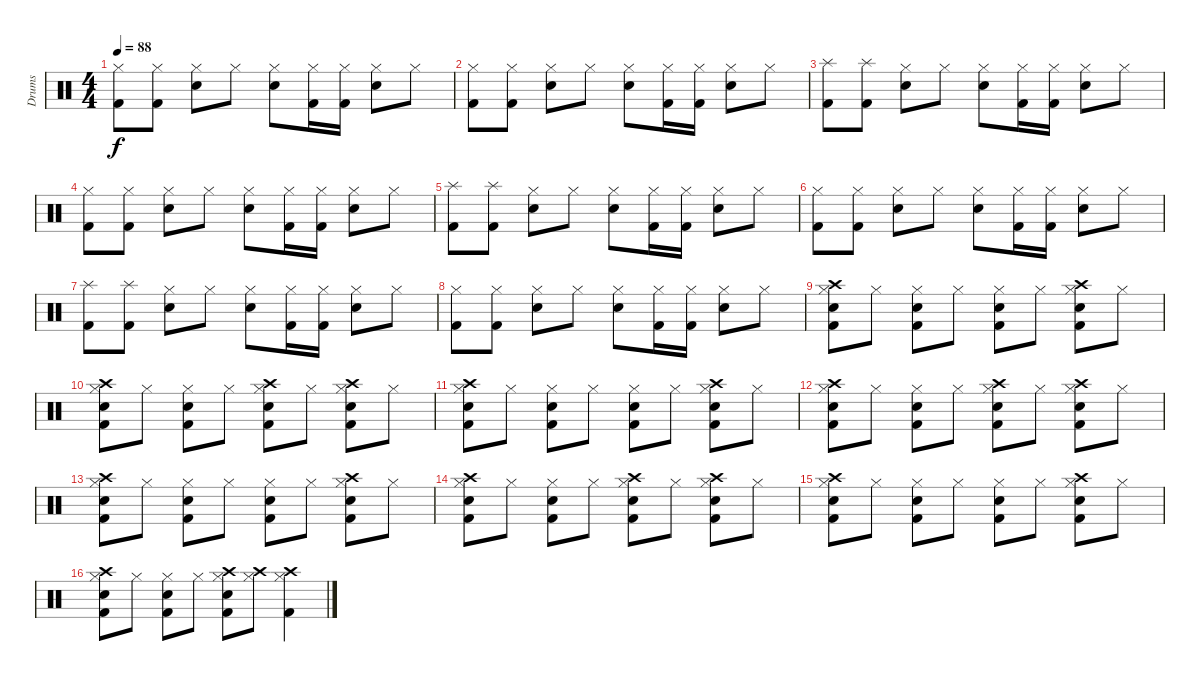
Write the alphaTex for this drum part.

\track ("Drums" "Drums") {instrument percussion}
\staff {score}
\articulation defaults
\ts (4 4)
\tempo 88
\clef neutral
\ks c
("Hi-Hat (closed)" "Kick (hit) 2").8{dy f} ("Hi-Hat (closed)" "Kick (hit) 2").8 ("Hi-Hat (closed)" "Electric Snare (hit)").8 "Hi-Hat (closed)".8 ("Hi-Hat (closed)" "Electric Snare (hit)").8 ("Hi-Hat (closed)" "Kick (hit) 2").16 ("Hi-Hat (closed)" "Kick (hit) 2").16 ("Hi-Hat (closed)" "Electric Snare (hit)").8 "Hi-Hat (closed)".8 |
("Hi-Hat (closed)" "Kick (hit) 2").8 ("Hi-Hat (closed)" "Kick (hit) 2").8 ("Hi-Hat (closed)" "Electric Snare (hit)").8 "Hi-Hat (closed)".8 ("Hi-Hat (closed)" "Electric Snare (hit)").8 ("Hi-Hat (closed)" "Kick (hit) 2").16 ("Hi-Hat (closed)" "Kick (hit) 2").16 ("Hi-Hat (closed)" "Electric Snare (hit)").8 "Hi-Hat (closed)".8 |
("Splash (hit)" "Kick (hit) 2").8 ("Splash (hit)" "Kick (hit) 2").8 ("Hi-Hat (closed)" "Electric Snare (hit)").8 "Hi-Hat (closed)".8 ("Hi-Hat (closed)" "Electric Snare (hit)").8 ("Hi-Hat (closed)" "Kick (hit) 2").16 ("Hi-Hat (closed)" "Kick (hit) 2").16 ("Hi-Hat (closed)" "Electric Snare (hit)").8 "Hi-Hat (closed)".8 |
("Hi-Hat (closed)" "Kick (hit) 2").8 ("Hi-Hat (closed)" "Kick (hit) 2").8 ("Hi-Hat (closed)" "Electric Snare (hit)").8 "Hi-Hat (closed)".8 ("Hi-Hat (closed)" "Electric Snare (hit)").8 ("Hi-Hat (closed)" "Kick (hit) 2").16 ("Hi-Hat (closed)" "Kick (hit) 2").16 ("Hi-Hat (closed)" "Electric Snare (hit)").8 "Hi-Hat (closed)".8 |
("Splash (hit)" "Kick (hit) 2").8 ("Splash (hit)" "Kick (hit) 2").8 ("Hi-Hat (closed)" "Electric Snare (hit)").8 "Hi-Hat (closed)".8 ("Hi-Hat (closed)" "Electric Snare (hit)").8 ("Hi-Hat (closed)" "Kick (hit) 2").16 ("Hi-Hat (closed)" "Kick (hit) 2").16 ("Hi-Hat (closed)" "Electric Snare (hit)").8 "Hi-Hat (closed)".8 |
("Hi-Hat (closed)" "Kick (hit) 2").8 ("Hi-Hat (closed)" "Kick (hit) 2").8 ("Hi-Hat (closed)" "Electric Snare (hit)").8 "Hi-Hat (closed)".8 ("Hi-Hat (closed)" "Electric Snare (hit)").8 ("Hi-Hat (closed)" "Kick (hit) 2").16 ("Hi-Hat (closed)" "Kick (hit) 2").16 ("Hi-Hat (closed)" "Electric Snare (hit)").8 "Hi-Hat (closed)".8 |
("Splash (hit)" "Kick (hit) 2").8 ("Splash (hit)" "Kick (hit) 2").8 ("Hi-Hat (closed)" "Electric Snare (hit)").8 "Hi-Hat (closed)".8 ("Hi-Hat (closed)" "Electric Snare (hit)").8 ("Hi-Hat (closed)" "Kick (hit) 2").16 ("Hi-Hat (closed)" "Kick (hit) 2").16 ("Hi-Hat (closed)" "Electric Snare (hit)").8 "Hi-Hat (closed)".8 |
("Hi-Hat (closed)" "Kick (hit) 2").8 ("Hi-Hat (closed)" "Kick (hit) 2").8 ("Hi-Hat (closed)" "Electric Snare (hit)").8 "Hi-Hat (closed)".8 ("Hi-Hat (closed)" "Electric Snare (hit)").8 ("Hi-Hat (closed)" "Kick (hit) 2").16 ("Hi-Hat (closed)" "Kick (hit) 2").16 ("Hi-Hat (closed)" "Electric Snare (hit)").8 "Hi-Hat (closed)".8 |
("Crash high (hit)" "Hi-Hat (closed)" "Electric Snare (hit)" "Kick (hit) 2").8 "Hi-Hat (closed)".8 ("Hi-Hat (closed)" "Electric Snare (hit)" "Kick (hit) 2").8 "Hi-Hat (closed)".8 ("Hi-Hat (closed)" "Electric Snare (hit)" "Kick (hit) 2").8 "Hi-Hat (closed)".8 ("Crash high (hit)" "Hi-Hat (closed)" "Electric Snare (hit)" "Kick (hit) 2").8 "Hi-Hat (closed)".8 |
("Crash high (hit)" "Hi-Hat (closed)" "Electric Snare (hit)" "Kick (hit) 2").8 "Hi-Hat (closed)".8 ("Hi-Hat (closed)" "Electric Snare (hit)" "Kick (hit) 2").8 "Hi-Hat (closed)".8 ("Crash high (hit)" "Hi-Hat (closed)" "Electric Snare (hit)" "Kick (hit) 2").8 "Hi-Hat (closed)".8 ("Crash high (hit)" "Hi-Hat (closed)" "Electric Snare (hit)" "Kick (hit) 2").8 "Hi-Hat (closed)".8 |
("Crash high (hit)" "Hi-Hat (closed)" "Electric Snare (hit)" "Kick (hit) 2").8 "Hi-Hat (closed)".8 ("Hi-Hat (closed)" "Electric Snare (hit)" "Kick (hit) 2").8 "Hi-Hat (closed)".8 ("Hi-Hat (closed)" "Electric Snare (hit)" "Kick (hit) 2").8 "Hi-Hat (closed)".8 ("Crash high (hit)" "Hi-Hat (closed)" "Electric Snare (hit)" "Kick (hit) 2").8 "Hi-Hat (closed)".8 |
("Crash high (hit)" "Hi-Hat (closed)" "Electric Snare (hit)" "Kick (hit) 2").8 "Hi-Hat (closed)".8 ("Hi-Hat (closed)" "Electric Snare (hit)" "Kick (hit) 2").8 "Hi-Hat (closed)".8 ("Crash high (hit)" "Hi-Hat (closed)" "Electric Snare (hit)" "Kick (hit) 2").8 "Hi-Hat (closed)".8 ("Crash high (hit)" "Hi-Hat (closed)" "Electric Snare (hit)" "Kick (hit) 2").8 "Hi-Hat (closed)".8 |
("Crash high (hit)" "Hi-Hat (closed)" "Electric Snare (hit)" "Kick (hit) 2").8 "Hi-Hat (closed)".8 ("Hi-Hat (closed)" "Electric Snare (hit)" "Kick (hit) 2").8 "Hi-Hat (closed)".8 ("Hi-Hat (closed)" "Electric Snare (hit)" "Kick (hit) 2").8 "Hi-Hat (closed)".8 ("Crash high (hit)" "Hi-Hat (closed)" "Electric Snare (hit)" "Kick (hit) 2").8 "Hi-Hat (closed)".8 |
("Crash high (hit)" "Hi-Hat (closed)" "Electric Snare (hit)" "Kick (hit) 2").8 "Hi-Hat (closed)".8 ("Hi-Hat (closed)" "Electric Snare (hit)" "Kick (hit) 2").8 "Hi-Hat (closed)".8 ("Crash high (hit)" "Hi-Hat (closed)" "Electric Snare (hit)" "Kick (hit) 2").8 "Hi-Hat (closed)".8 ("Crash high (hit)" "Hi-Hat (closed)" "Electric Snare (hit)" "Kick (hit) 2").8 "Hi-Hat (closed)".8 |
("Crash high (hit)" "Hi-Hat (closed)" "Electric Snare (hit)" "Kick (hit) 2").8 "Hi-Hat (closed)".8 ("Hi-Hat (closed)" "Electric Snare (hit)" "Kick (hit) 2").8 "Hi-Hat (closed)".8 ("Hi-Hat (closed)" "Electric Snare (hit)" "Kick (hit) 2").8 "Hi-Hat (closed)".8 ("Crash high (hit)" "Hi-Hat (closed)" "Electric Snare (hit)" "Kick (hit) 2").8 "Hi-Hat (closed)".8 |
("Crash high (hit)" "Hi-Hat (closed)" "Electric Snare (hit)" "Kick (hit) 2").8 "Hi-Hat (closed)".8 ("Hi-Hat (closed)" "Electric Snare (hit)" "Kick (hit) 2").8 "Hi-Hat (closed)".8 ("Crash high (hit)" "Hi-Hat (closed)" "Electric Snare (hit)" "Kick (hit) 2").8 ("Crash high (hit)" "Hi-Hat (closed)").8 ("Crash high (hit)" "Hi-Hat (closed)" "Kick (hit) 2").4
